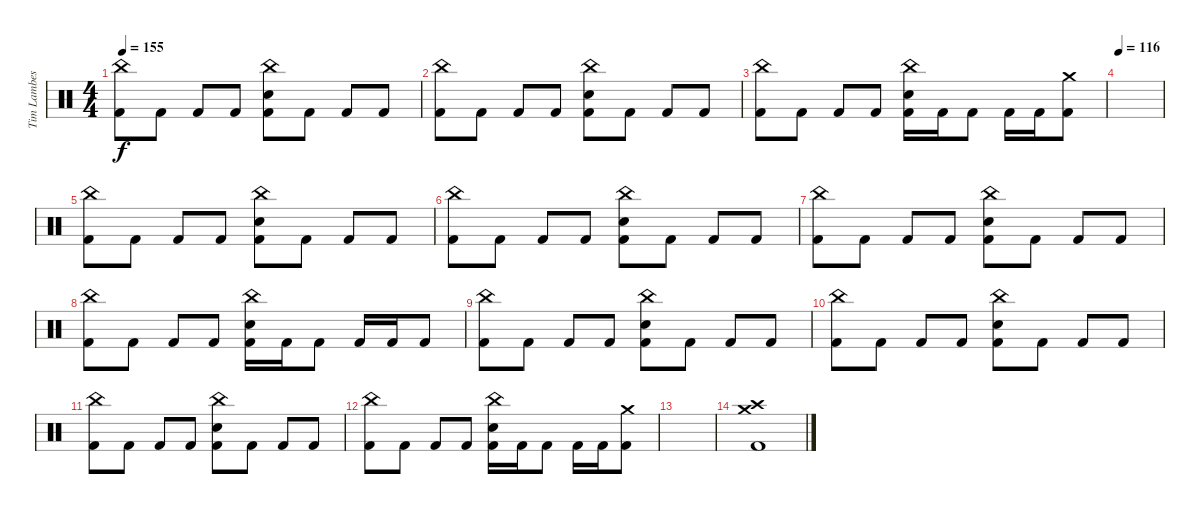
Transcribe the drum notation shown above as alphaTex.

\track ("Tim Lambesis" "Tim Lambes") {instrument percussion}
\staff {score}
\articulation defaults
\ts (4 4)
\tempo 155
\clef neutral
\ks c
("China (hit)" "Kick (hit) 2").8{dy f} "Kick (hit) 2".8 "Kick (hit) 2".8 "Kick (hit) 2".8 ("China (hit)" "Electric Snare (hit)" "Kick (hit) 2").8 "Kick (hit) 2".8 "Kick (hit) 2".8 "Kick (hit) 2".8 |
("China (hit)" "Kick (hit) 2").8 "Kick (hit) 2".8 "Kick (hit) 2".8 "Kick (hit) 2".8 ("China (hit)" "Electric Snare (hit)" "Kick (hit) 2").8 "Kick (hit) 2".8 "Kick (hit) 2".8 "Kick (hit) 2".8 |
("China (hit)" "Kick (hit) 2").8 "Kick (hit) 2".8 "Kick (hit) 2".8 "Kick (hit) 2".8 ("China (hit)" "Electric Snare (hit)" "Kick (hit) 2").16 "Kick (hit) 2".16 "Kick (hit) 2".8 "Kick (hit) 2".16 "Kick (hit) 2".16 ("Crash medium (hit)" "Kick (hit) 2").8 |
\tempo 116
|
("China (hit)" "Kick (hit) 2").8 "Kick (hit) 2".8 "Kick (hit) 2".8 "Kick (hit) 2".8 ("China (hit)" "Electric Snare (hit)" "Kick (hit) 2").8 "Kick (hit) 2".8 "Kick (hit) 2".8 "Kick (hit) 2".8 |
("China (hit)" "Kick (hit) 2").8 "Kick (hit) 2".8 "Kick (hit) 2".8 "Kick (hit) 2".8 ("China (hit)" "Electric Snare (hit)" "Kick (hit) 2").8 "Kick (hit) 2".8 "Kick (hit) 2".8 "Kick (hit) 2".8 |
("China (hit)" "Kick (hit) 2").8 "Kick (hit) 2".8 "Kick (hit) 2".8 "Kick (hit) 2".8 ("China (hit)" "Electric Snare (hit)" "Kick (hit) 2").8 "Kick (hit) 2".8 "Kick (hit) 2".8 "Kick (hit) 2".8 |
("China (hit)" "Kick (hit) 2").8 "Kick (hit) 2".8 "Kick (hit) 2".8 "Kick (hit) 2".8 ("China (hit)" "Electric Snare (hit)" "Kick (hit) 2").16 "Kick (hit) 2".16 "Kick (hit) 2".8 "Kick (hit) 2".16 "Kick (hit) 2".16 "Kick (hit) 2".8 |
("China (hit)" "Kick (hit) 2").8 "Kick (hit) 2".8 "Kick (hit) 2".8 "Kick (hit) 2".8 ("China (hit)" "Electric Snare (hit)" "Kick (hit) 2").8 "Kick (hit) 2".8 "Kick (hit) 2".8 "Kick (hit) 2".8 |
("China (hit)" "Kick (hit) 2").8 "Kick (hit) 2".8 "Kick (hit) 2".8 "Kick (hit) 2".8 ("China (hit)" "Electric Snare (hit)" "Kick (hit) 2").8 "Kick (hit) 2".8 "Kick (hit) 2".8 "Kick (hit) 2".8 |
("China (hit)" "Kick (hit) 2").8 "Kick (hit) 2".8 "Kick (hit) 2".8 "Kick (hit) 2".8 ("China (hit)" "Electric Snare (hit)" "Kick (hit) 2").8 "Kick (hit) 2".8 "Kick (hit) 2".8 "Kick (hit) 2".8 |
("China (hit)" "Kick (hit) 2").8 "Kick (hit) 2".8 "Kick (hit) 2".8 "Kick (hit) 2".8 ("China (hit)" "Electric Snare (hit)" "Kick (hit) 2").16 "Kick (hit) 2".16 "Kick (hit) 2".8 "Kick (hit) 2".16 "Kick (hit) 2".16 ("Crash medium (hit)" "Kick (hit) 2").8 |
|
("Crash high (hit)" "Crash medium (hit)" "Kick (hit) 2").1
